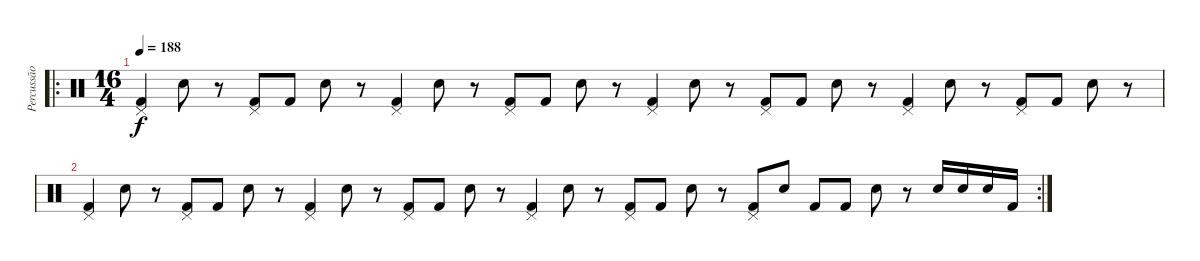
\track ("Percussão" "Percussão") {instrument percussion}
\staff {score}
\articulation defaults
\ro
\ts (16 4)
\tempo 188
\clef neutral
\ks c
("Kick (hit) 2" "Pedal Hi-Hat (hit)").4{dy f} "Snare (hit) 2".8 r.8 ("Kick (hit) 2" "Pedal Hi-Hat (hit)").8 "Kick (hit) 2".8 "Snare (hit) 2".8 r.8 ("Kick (hit) 2" "Pedal Hi-Hat (hit)").4 "Snare (hit) 2".8 r.8 ("Kick (hit) 2" "Pedal Hi-Hat (hit)").8 "Kick (hit) 2".8 "Snare (hit) 2".8 r.8 ("Kick (hit) 2" "Pedal Hi-Hat (hit)").4 "Snare (hit) 2".8 r.8 ("Kick (hit) 2" "Pedal Hi-Hat (hit)").8 "Kick (hit) 2".8 "Snare (hit) 2".8 r.8 ("Kick (hit) 2" "Pedal Hi-Hat (hit)").4 "Snare (hit) 2".8 r.8 ("Kick (hit) 2" "Pedal Hi-Hat (hit)").8 "Kick (hit) 2".8 "Snare (hit) 2".8 r.8 |
\rc 2
("Kick (hit) 2" "Pedal Hi-Hat (hit)").4 "Snare (hit) 2".8 r.8 ("Kick (hit) 2" "Pedal Hi-Hat (hit)").8 "Kick (hit) 2".8 "Snare (hit) 2".8 r.8 ("Kick (hit) 2" "Pedal Hi-Hat (hit)").4 "Snare (hit) 2".8 r.8 ("Kick (hit) 2" "Pedal Hi-Hat (hit)").8 "Kick (hit) 2".8 "Snare (hit) 2".8 r.8 ("Kick (hit) 2" "Pedal Hi-Hat (hit)").4 "Snare (hit) 2".8 r.8 ("Kick (hit) 2" "Pedal Hi-Hat (hit)").8 "Kick (hit) 2".8 "Snare (hit) 2".8 r.8 ("Kick (hit) 2" "Pedal Hi-Hat (hit)").8 "Snare (hit) 2".8 "Kick (hit) 2".8 "Kick (hit) 2".8 "Snare (hit) 2".8 r.8 "Snare (hit) 2".16 "Snare (hit) 2".16 "Snare (hit) 2".16 "Kick (hit) 2".16
